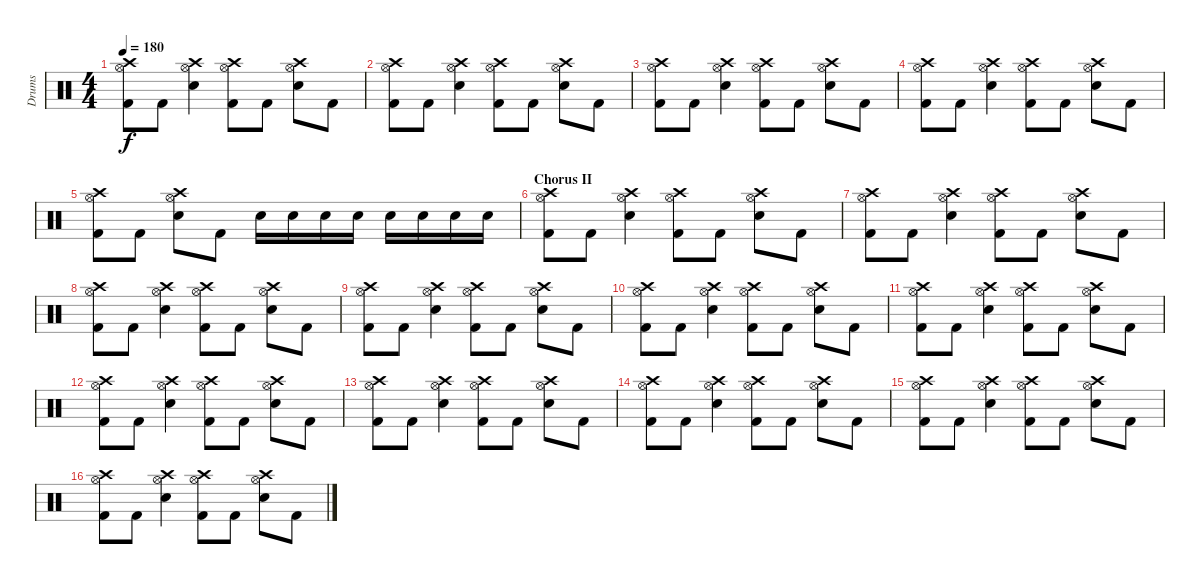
\track ("Drums" "Drums") {instrument percussion}
\staff {score}
\articulation defaults
\ts (4 4)
\tempo 180
\clef neutral
\ks c
("Kick (hit) 2" "Hi-Hat (open)" "Crash high (hit)").8{dy f} "Kick (hit) 2".8 ("Snare (hit) 2" "Hi-Hat (open)" "Crash high (hit)").4 ("Hi-Hat (open)" "Crash high (hit)" "Kick (hit) 2").8 "Kick (hit) 2".8 ("Hi-Hat (open)" "Crash high (hit)" "Snare (hit) 2").8 "Kick (hit) 2".8 |
("Kick (hit) 2" "Hi-Hat (open)" "Crash high (hit)").8 "Kick (hit) 2".8 ("Snare (hit) 2" "Hi-Hat (open)" "Crash high (hit)").4 ("Hi-Hat (open)" "Crash high (hit)" "Kick (hit) 2").8 "Kick (hit) 2".8 ("Hi-Hat (open)" "Crash high (hit)" "Snare (hit) 2").8 "Kick (hit) 2".8 |
("Kick (hit) 2" "Hi-Hat (open)" "Crash high (hit)").8 "Kick (hit) 2".8 ("Snare (hit) 2" "Hi-Hat (open)" "Crash high (hit)").4 ("Hi-Hat (open)" "Crash high (hit)" "Kick (hit) 2").8 "Kick (hit) 2".8 ("Hi-Hat (open)" "Crash high (hit)" "Snare (hit) 2").8 "Kick (hit) 2".8 |
("Kick (hit) 2" "Hi-Hat (open)" "Crash high (hit)").8 "Kick (hit) 2".8 ("Snare (hit) 2" "Hi-Hat (open)" "Crash high (hit)").4 ("Hi-Hat (open)" "Crash high (hit)" "Kick (hit) 2").8 "Kick (hit) 2".8 ("Hi-Hat (open)" "Crash high (hit)" "Snare (hit) 2").8 "Kick (hit) 2".8 |
("Kick (hit) 2" "Hi-Hat (open)" "Crash high (hit)").8 "Kick (hit) 2".8 ("Snare (hit) 2" "Hi-Hat (open)" "Crash high (hit)").8 "Kick (hit) 2".8 "Snare (hit) 2".16 "Snare (hit) 2".16 "Snare (hit) 2".16 "Snare (hit) 2".16 "Snare (hit) 2".16 "Snare (hit) 2".16 "Snare (hit) 2".16 "Snare (hit) 2".16 |
\section ("" "Chorus II")
("Kick (hit) 2" "Hi-Hat (open)" "Crash high (hit)").8 "Kick (hit) 2".8 ("Snare (hit) 2" "Hi-Hat (open)" "Crash high (hit)").4 ("Hi-Hat (open)" "Crash high (hit)" "Kick (hit) 2").8 "Kick (hit) 2".8 ("Hi-Hat (open)" "Crash high (hit)" "Snare (hit) 2").8 "Kick (hit) 2".8 |
("Kick (hit) 2" "Hi-Hat (open)" "Crash high (hit)").8 "Kick (hit) 2".8 ("Snare (hit) 2" "Hi-Hat (open)" "Crash high (hit)").4 ("Hi-Hat (open)" "Crash high (hit)" "Kick (hit) 2").8 "Kick (hit) 2".8 ("Hi-Hat (open)" "Crash high (hit)" "Snare (hit) 2").8 "Kick (hit) 2".8 |
("Kick (hit) 2" "Hi-Hat (open)" "Crash high (hit)").8 "Kick (hit) 2".8 ("Snare (hit) 2" "Hi-Hat (open)" "Crash high (hit)").4 ("Hi-Hat (open)" "Crash high (hit)" "Kick (hit) 2").8 "Kick (hit) 2".8 ("Hi-Hat (open)" "Crash high (hit)" "Snare (hit) 2").8 "Kick (hit) 2".8 |
("Kick (hit) 2" "Hi-Hat (open)" "Crash high (hit)").8 "Kick (hit) 2".8 ("Snare (hit) 2" "Hi-Hat (open)" "Crash high (hit)").4 ("Hi-Hat (open)" "Crash high (hit)" "Kick (hit) 2").8 "Kick (hit) 2".8 ("Hi-Hat (open)" "Crash high (hit)" "Snare (hit) 2").8 "Kick (hit) 2".8 |
("Kick (hit) 2" "Hi-Hat (open)" "Crash high (hit)").8 "Kick (hit) 2".8 ("Snare (hit) 2" "Hi-Hat (open)" "Crash high (hit)").4 ("Hi-Hat (open)" "Crash high (hit)" "Kick (hit) 2").8 "Kick (hit) 2".8 ("Hi-Hat (open)" "Crash high (hit)" "Snare (hit) 2").8 "Kick (hit) 2".8 |
("Kick (hit) 2" "Hi-Hat (open)" "Crash high (hit)").8 "Kick (hit) 2".8 ("Snare (hit) 2" "Hi-Hat (open)" "Crash high (hit)").4 ("Hi-Hat (open)" "Crash high (hit)" "Kick (hit) 2").8 "Kick (hit) 2".8 ("Hi-Hat (open)" "Crash high (hit)" "Snare (hit) 2").8 "Kick (hit) 2".8 |
("Kick (hit) 2" "Hi-Hat (open)" "Crash high (hit)").8 "Kick (hit) 2".8 ("Snare (hit) 2" "Hi-Hat (open)" "Crash high (hit)").4 ("Hi-Hat (open)" "Crash high (hit)" "Kick (hit) 2").8 "Kick (hit) 2".8 ("Hi-Hat (open)" "Crash high (hit)" "Snare (hit) 2").8 "Kick (hit) 2".8 |
("Kick (hit) 2" "Hi-Hat (open)" "Crash high (hit)").8 "Kick (hit) 2".8 ("Snare (hit) 2" "Hi-Hat (open)" "Crash high (hit)").4 ("Hi-Hat (open)" "Crash high (hit)" "Kick (hit) 2").8 "Kick (hit) 2".8 ("Hi-Hat (open)" "Crash high (hit)" "Snare (hit) 2").8 "Kick (hit) 2".8 |
("Kick (hit) 2" "Hi-Hat (open)" "Crash high (hit)").8 "Kick (hit) 2".8 ("Snare (hit) 2" "Hi-Hat (open)" "Crash high (hit)").4 ("Hi-Hat (open)" "Crash high (hit)" "Kick (hit) 2").8 "Kick (hit) 2".8 ("Hi-Hat (open)" "Crash high (hit)" "Snare (hit) 2").8 "Kick (hit) 2".8 |
("Kick (hit) 2" "Hi-Hat (open)" "Crash high (hit)").8 "Kick (hit) 2".8 ("Snare (hit) 2" "Hi-Hat (open)" "Crash high (hit)").4 ("Hi-Hat (open)" "Crash high (hit)" "Kick (hit) 2").8 "Kick (hit) 2".8 ("Hi-Hat (open)" "Crash high (hit)" "Snare (hit) 2").8 "Kick (hit) 2".8 |
("Kick (hit) 2" "Hi-Hat (open)" "Crash high (hit)").8 "Kick (hit) 2".8 ("Snare (hit) 2" "Hi-Hat (open)" "Crash high (hit)").4 ("Hi-Hat (open)" "Crash high (hit)" "Kick (hit) 2").8 "Kick (hit) 2".8 ("Hi-Hat (open)" "Crash high (hit)" "Snare (hit) 2").8 "Kick (hit) 2".8
